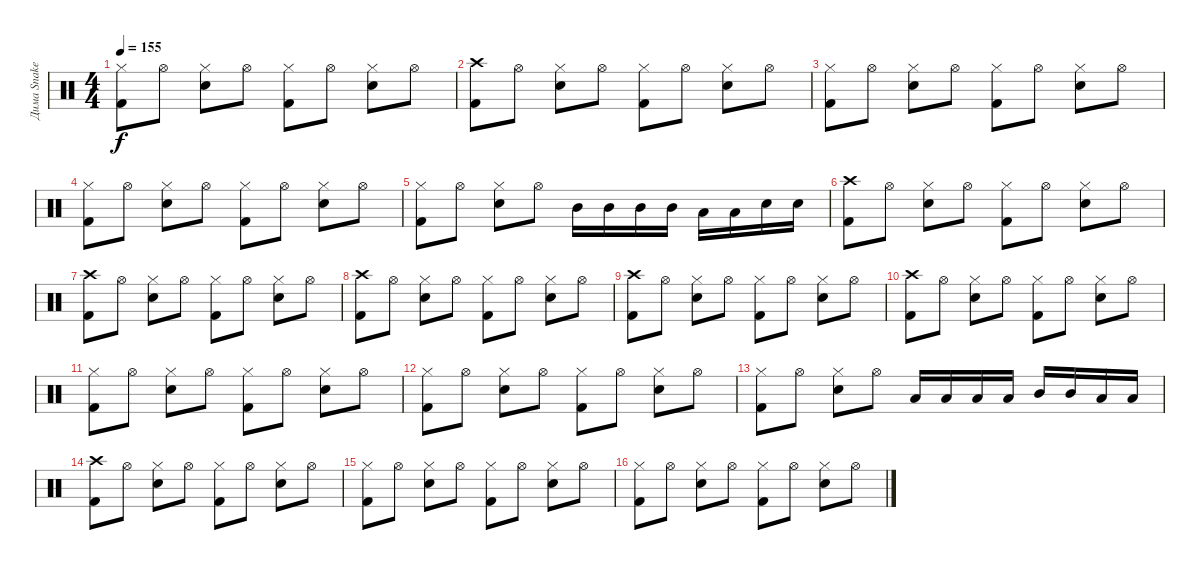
\track ("Дима Snake Хакимов" "Дима Snake") {instrument percussion}
\staff {score}
\articulation defaults
\ts (4 4)
\tempo 155
\clef neutral
\ks c
("Hi-Hat (closed)" "Kick (hit) 2").8{dy f} "Hi-Hat (open)".8 ("Hi-Hat (closed)" "Snare (hit) 2").8 "Hi-Hat (open)".8 ("Hi-Hat (closed)" "Kick (hit) 2").8 "Hi-Hat (open)".8 ("Hi-Hat (closed)" "Snare (hit) 2").8 "Hi-Hat (open)".8 |
("Crash high (hit)" "Kick (hit) 2").8 "Hi-Hat (open)".8 ("Hi-Hat (closed)" "Snare (hit) 2").8 "Hi-Hat (open)".8 ("Hi-Hat (closed)" "Kick (hit) 2").8 "Hi-Hat (open)".8 ("Hi-Hat (closed)" "Snare (hit) 2").8 "Hi-Hat (open)".8 |
("Hi-Hat (closed)" "Kick (hit) 2").8 "Hi-Hat (open)".8 ("Hi-Hat (closed)" "Snare (hit) 2").8 "Hi-Hat (open)".8 ("Hi-Hat (closed)" "Kick (hit) 2").8 "Hi-Hat (open)".8 ("Hi-Hat (closed)" "Snare (hit) 2").8 "Hi-Hat (open)".8 |
("Hi-Hat (closed)" "Kick (hit) 2").8 "Hi-Hat (open)".8 ("Hi-Hat (closed)" "Snare (hit) 2").8 "Hi-Hat (open)".8 ("Hi-Hat (closed)" "Kick (hit) 2").8 "Hi-Hat (open)".8 ("Hi-Hat (closed)" "Snare (hit) 2").8 "Hi-Hat (open)".8 |
("Hi-Hat (closed)" "Kick (hit) 2").8 "Hi-Hat (open)".8 ("Hi-Hat (closed)" "Snare (hit) 2").8 "Hi-Hat (open)".8 "Mid Tom (hit)".16 "Mid Tom (hit)".16 "Mid Tom (hit)".16 "Mid Tom (hit)".16 "Low Tom (hit)".16 "Low Tom (hit)".16 "Snare (hit) 2".16 "Snare (hit) 2".16 |
("Crash high (hit)" "Kick (hit) 2").8 "Hi-Hat (open)".8 ("Hi-Hat (closed)" "Snare (hit) 2").8 "Hi-Hat (open)".8 ("Hi-Hat (closed)" "Kick (hit) 2").8 "Hi-Hat (open)".8 ("Hi-Hat (closed)" "Snare (hit) 2").8 "Hi-Hat (open)".8 |
("Crash high (hit)" "Kick (hit) 2").8 "Hi-Hat (open)".8 ("Hi-Hat (closed)" "Snare (hit) 2").8 "Hi-Hat (open)".8 ("Hi-Hat (closed)" "Kick (hit) 2").8 "Hi-Hat (open)".8 ("Hi-Hat (closed)" "Snare (hit) 2").8 "Hi-Hat (open)".8 |
("Crash high (hit)" "Kick (hit) 2").8 "Hi-Hat (open)".8 ("Hi-Hat (closed)" "Snare (hit) 2").8 "Hi-Hat (open)".8 ("Hi-Hat (closed)" "Kick (hit) 2").8 "Hi-Hat (open)".8 ("Hi-Hat (closed)" "Snare (hit) 2").8 "Hi-Hat (open)".8 |
("Crash high (hit)" "Kick (hit) 2").8 "Hi-Hat (open)".8 ("Hi-Hat (closed)" "Snare (hit) 2").8 "Hi-Hat (open)".8 ("Hi-Hat (closed)" "Kick (hit) 2").8 "Hi-Hat (open)".8 ("Hi-Hat (closed)" "Snare (hit) 2").8 "Hi-Hat (open)".8 |
("Crash high (hit)" "Kick (hit) 2").8 "Hi-Hat (open)".8 ("Hi-Hat (closed)" "Snare (hit) 2").8 "Hi-Hat (open)".8 ("Hi-Hat (closed)" "Kick (hit) 2").8 "Hi-Hat (open)".8 ("Hi-Hat (closed)" "Snare (hit) 2").8 "Hi-Hat (open)".8 |
("Hi-Hat (closed)" "Kick (hit) 2").8 "Hi-Hat (open)".8 ("Hi-Hat (closed)" "Snare (hit) 2").8 "Hi-Hat (open)".8 ("Hi-Hat (closed)" "Kick (hit) 2").8 "Hi-Hat (open)".8 ("Hi-Hat (closed)" "Snare (hit) 2").8 "Hi-Hat (open)".8 |
("Hi-Hat (closed)" "Kick (hit) 2").8 "Hi-Hat (open)".8 ("Hi-Hat (closed)" "Snare (hit) 2").8 "Hi-Hat (open)".8 ("Hi-Hat (closed)" "Kick (hit) 2").8 "Hi-Hat (open)".8 ("Hi-Hat (closed)" "Snare (hit) 2").8 "Hi-Hat (open)".8 |
("Hi-Hat (closed)" "Kick (hit) 2").8 "Hi-Hat (open)".8 ("Hi-Hat (closed)" "Snare (hit) 2").8 "Hi-Hat (open)".8 "Low Tom (hit)".16 "Low Tom (hit)".16 "Low Tom (hit)".16 "Low Tom (hit)".16 "Mid Tom (hit)".16 "Mid Tom (hit)".16 "Low Tom (hit)".16 "Low Tom (hit)".16 |
("Crash high (hit)" "Kick (hit) 2").8 "Hi-Hat (open)".8 ("Hi-Hat (closed)" "Snare (hit) 2").8 "Hi-Hat (open)".8 ("Hi-Hat (closed)" "Kick (hit) 2").8 "Hi-Hat (open)".8 ("Hi-Hat (closed)" "Snare (hit) 2").8 "Hi-Hat (open)".8 |
("Hi-Hat (closed)" "Kick (hit) 2").8 "Hi-Hat (open)".8 ("Hi-Hat (closed)" "Snare (hit) 2").8 "Hi-Hat (open)".8 ("Hi-Hat (closed)" "Kick (hit) 2").8 "Hi-Hat (open)".8 ("Hi-Hat (closed)" "Snare (hit) 2").8 "Hi-Hat (open)".8 |
("Hi-Hat (closed)" "Kick (hit) 2").8 "Hi-Hat (open)".8 ("Hi-Hat (closed)" "Snare (hit) 2").8 "Hi-Hat (open)".8 ("Hi-Hat (closed)" "Kick (hit) 2").8 "Hi-Hat (open)".8 ("Hi-Hat (closed)" "Snare (hit) 2").8 "Hi-Hat (open)".8
